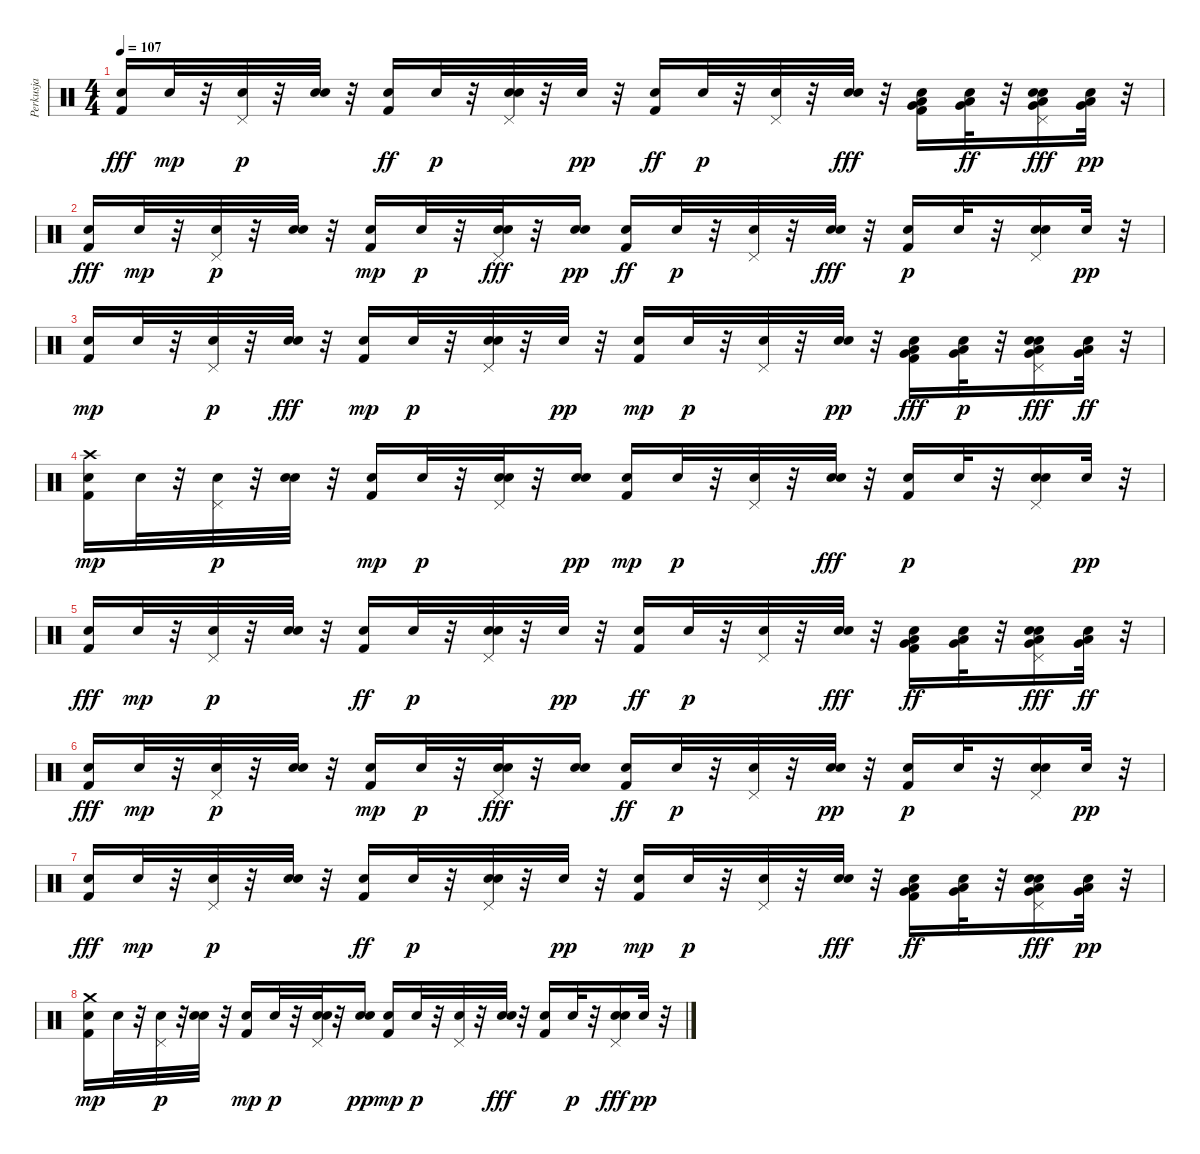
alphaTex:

\track ("Perkusja" "Perkusja") {instrument percussion}
\staff {score}
\articulation defaults
\ts (4 4)
\tempo 107
\clef neutral
\ks c
("Snare (hit) 2" "Kick (hit) 2").16{dy fff} "Snare (hit) 2".32{dy mp} r.32 ("Snare (hit) 2" "Pedal Hi-Hat (hit)").32{dy p} r.32 ("Electric Snare (hit)" "Snare (hit) 2").32 r.32 ("Snare (hit) 2" "Kick (hit) 2").16{dy ff} "Snare (hit) 2".32{dy p} r.32 ("Electric Snare (hit)" "Pedal Hi-Hat (hit)" "Snare (hit) 2").32 r.32 "Snare (hit) 2".32{dy pp} r.32 ("Snare (hit) 2" "Kick (hit) 2").16{dy ff} "Snare (hit) 2".32{dy p} r.32 ("Pedal Hi-Hat (hit)" "Snare (hit) 2").32 r.32 ("Snare (hit) 2" "Electric Snare (hit)").32{dy fff} r.32 ("Very Low Tom (hit)" "Snare (hit) 2" "Kick (hit) 2" "Low Floor Tom (hit)").16 ("Very Low Tom (hit)" "Snare (hit) 2" "Low Floor Tom (hit)").32{dy ff} r.32 ("Pedal Hi-Hat (hit)" "Snare (hit) 2" "Low Floor Tom (hit)" "Electric Snare (hit)" "Very Low Tom (hit)").16{dy fff} ("Low Floor Tom (hit)" "Very Low Tom (hit)" "Snare (hit) 2").32{dy pp} r.32 |
("Snare (hit) 2" "Kick (hit) 2").16{dy fff} "Snare (hit) 2".32{dy mp} r.32 ("Snare (hit) 2" "Pedal Hi-Hat (hit)").32{dy p} r.32 ("Electric Snare (hit)" "Snare (hit) 2").32 r.32 ("Kick (hit) 2" "Snare (hit) 2").16{dy mp} "Snare (hit) 2".32{dy p} r.32 ("Snare (hit) 2" "Pedal Hi-Hat (hit)" "Electric Snare (hit)").32{dy fff} r.32 ("Electric Snare (hit)" "Snare (hit) 2").16{dy pp} ("Snare (hit) 2" "Kick (hit) 2").16{dy ff} "Snare (hit) 2".32{dy p} r.32 ("Pedal Hi-Hat (hit)" "Snare (hit) 2").32 r.32 ("Snare (hit) 2" "Electric Snare (hit)").32{dy fff} r.32 ("Kick (hit) 2" "Snare (hit) 2").16{dy p} "Snare (hit) 2".32 r.32 ("Electric Snare (hit)" "Snare (hit) 2" "Pedal Hi-Hat (hit)").16 "Snare (hit) 2".32{dy pp} r.32 |
("Kick (hit) 2" "Snare (hit) 2").16{dy mp} "Snare (hit) 2".32 r.32 ("Pedal Hi-Hat (hit)" "Snare (hit) 2").32{dy p} r.32 ("Snare (hit) 2" "Electric Snare (hit)").32{dy fff} r.32 ("Kick (hit) 2" "Snare (hit) 2").16{dy mp} "Snare (hit) 2".32{dy p} r.32 ("Electric Snare (hit)" "Pedal Hi-Hat (hit)" "Snare (hit) 2").32 r.32 "Snare (hit) 2".32{dy pp} r.32 ("Kick (hit) 2" "Snare (hit) 2").16{dy mp} "Snare (hit) 2".32{dy p} r.32 ("Pedal Hi-Hat (hit)" "Snare (hit) 2").32 r.32 ("Electric Snare (hit)" "Snare (hit) 2").32{dy pp} r.32 ("Low Floor Tom (hit)" "Snare (hit) 2" "Very Low Tom (hit)" "Kick (hit) 2").16{dy fff} ("Very Low Tom (hit)" "Low Floor Tom (hit)" "Snare (hit) 2").32{dy p} r.32 ("Low Floor Tom (hit)" "Electric Snare (hit)" "Snare (hit) 2" "Very Low Tom (hit)" "Pedal Hi-Hat (hit)").16{dy fff} ("Snare (hit) 2" "Low Floor Tom (hit)" "Very Low Tom (hit)").32{dy ff} r.32 |
("Crash high (hit)" "Kick (hit) 2" "Snare (hit) 2").16{dy mp} "Snare (hit) 2".32 r.32 ("Pedal Hi-Hat (hit)" "Snare (hit) 2").32{dy p} r.32 ("Electric Snare (hit)" "Snare (hit) 2").32 r.32 ("Kick (hit) 2" "Snare (hit) 2").16{dy mp} "Snare (hit) 2".32{dy p} r.32 ("Electric Snare (hit)" "Snare (hit) 2" "Pedal Hi-Hat (hit)").32 r.32 ("Electric Snare (hit)" "Snare (hit) 2").16{dy pp} ("Kick (hit) 2" "Snare (hit) 2").16{dy mp} "Snare (hit) 2".32{dy p} r.32 ("Pedal Hi-Hat (hit)" "Snare (hit) 2").32 r.32 ("Snare (hit) 2" "Electric Snare (hit)").32{dy fff} r.32 ("Kick (hit) 2" "Snare (hit) 2").16{dy p} "Snare (hit) 2".32 r.32 ("Pedal Hi-Hat (hit)" "Electric Snare (hit)" "Snare (hit) 2").16 "Snare (hit) 2".32{dy pp} r.32 |
("Snare (hit) 2" "Kick (hit) 2").16{dy fff} "Snare (hit) 2".32{dy mp} r.32 ("Pedal Hi-Hat (hit)" "Snare (hit) 2").32{dy p} r.32 ("Electric Snare (hit)" "Snare (hit) 2").32 r.32 ("Snare (hit) 2" "Kick (hit) 2").16{dy ff} "Snare (hit) 2".32{dy p} r.32 ("Electric Snare (hit)" "Pedal Hi-Hat (hit)" "Snare (hit) 2").32 r.32 "Snare (hit) 2".32{dy pp} r.32 ("Snare (hit) 2" "Kick (hit) 2").16{dy ff} "Snare (hit) 2".32{dy p} r.32 ("Snare (hit) 2" "Pedal Hi-Hat (hit)").32 r.32 ("Snare (hit) 2" "Electric Snare (hit)").32{dy fff} r.32 ("Kick (hit) 2" "Snare (hit) 2" "Low Floor Tom (hit)" "Very Low Tom (hit)").16{dy ff} ("Low Floor Tom (hit)" "Snare (hit) 2" "Very Low Tom (hit)").32 r.32 ("Snare (hit) 2" "Very Low Tom (hit)" "Pedal Hi-Hat (hit)" "Electric Snare (hit)" "Low Floor Tom (hit)").16{dy fff} ("Snare (hit) 2" "Low Floor Tom (hit)" "Very Low Tom (hit)").32{dy ff} r.32 |
("Snare (hit) 2" "Kick (hit) 2").16{dy fff} "Snare (hit) 2".32{dy mp} r.32 ("Snare (hit) 2" "Pedal Hi-Hat (hit)").32{dy p} r.32 ("Electric Snare (hit)" "Snare (hit) 2").32 r.32 ("Kick (hit) 2" "Snare (hit) 2").16{dy mp} "Snare (hit) 2".32{dy p} r.32 ("Pedal Hi-Hat (hit)" "Snare (hit) 2" "Electric Snare (hit)").32{dy fff} r.32 ("Snare (hit) 2" "Electric Snare (hit)").16 ("Snare (hit) 2" "Kick (hit) 2").16{dy ff} "Snare (hit) 2".32{dy p} r.32 ("Pedal Hi-Hat (hit)" "Snare (hit) 2").32 r.32 ("Electric Snare (hit)" "Snare (hit) 2").32{dy pp} r.32 ("Kick (hit) 2" "Snare (hit) 2").16{dy p} "Snare (hit) 2".32 r.32 ("Electric Snare (hit)" "Snare (hit) 2" "Pedal Hi-Hat (hit)").16 "Snare (hit) 2".32{dy pp} r.32 |
("Snare (hit) 2" "Kick (hit) 2").16{dy fff} "Snare (hit) 2".32{dy mp} r.32 ("Pedal Hi-Hat (hit)" "Snare (hit) 2").32{dy p} r.32 ("Electric Snare (hit)" "Snare (hit) 2").32 r.32 ("Snare (hit) 2" "Kick (hit) 2").16{dy ff} "Snare (hit) 2".32{dy p} r.32 ("Electric Snare (hit)" "Pedal Hi-Hat (hit)" "Snare (hit) 2").32 r.32 "Snare (hit) 2".32{dy pp} r.32 ("Kick (hit) 2" "Snare (hit) 2").16{dy mp} "Snare (hit) 2".32{dy p} r.32 ("Pedal Hi-Hat (hit)" "Snare (hit) 2").32 r.32 ("Snare (hit) 2" "Electric Snare (hit)").32{dy fff} r.32 ("Kick (hit) 2" "Snare (hit) 2" "Low Floor Tom (hit)" "Very Low Tom (hit)").16{dy ff} ("Snare (hit) 2" "Low Floor Tom (hit)" "Very Low Tom (hit)").32 r.32 ("Snare (hit) 2" "Pedal Hi-Hat (hit)" "Very Low Tom (hit)" "Electric Snare (hit)" "Low Floor Tom (hit)").16{dy fff} ("Low Floor Tom (hit)" "Very Low Tom (hit)" "Snare (hit) 2").32{dy pp} r.32 |
("Kick (hit) 2" "Crash medium (hit)" "Snare (hit) 2").16{dy mp} "Snare (hit) 2".32 r.32 ("Pedal Hi-Hat (hit)" "Snare (hit) 2").32{dy p} r.32 ("Electric Snare (hit)" "Snare (hit) 2").32 r.32 ("Kick (hit) 2" "Snare (hit) 2").16{dy mp} "Snare (hit) 2".32{dy p} r.32 ("Electric Snare (hit)" "Pedal Hi-Hat (hit)" "Snare (hit) 2").32 r.32 ("Electric Snare (hit)" "Snare (hit) 2").16{dy pp} ("Kick (hit) 2" "Snare (hit) 2").16{dy mp} "Snare (hit) 2".32{dy p} r.32 ("Snare (hit) 2" "Pedal Hi-Hat (hit)").32 r.32 ("Snare (hit) 2" "Electric Snare (hit)").32{dy fff} r.32 ("Snare (hit) 2" "Kick (hit) 2").16 "Snare (hit) 2".32{dy p} r.32 ("Snare (hit) 2" "Electric Snare (hit)" "Pedal Hi-Hat (hit)").16{dy fff} "Snare (hit) 2".32{dy pp} r.32
